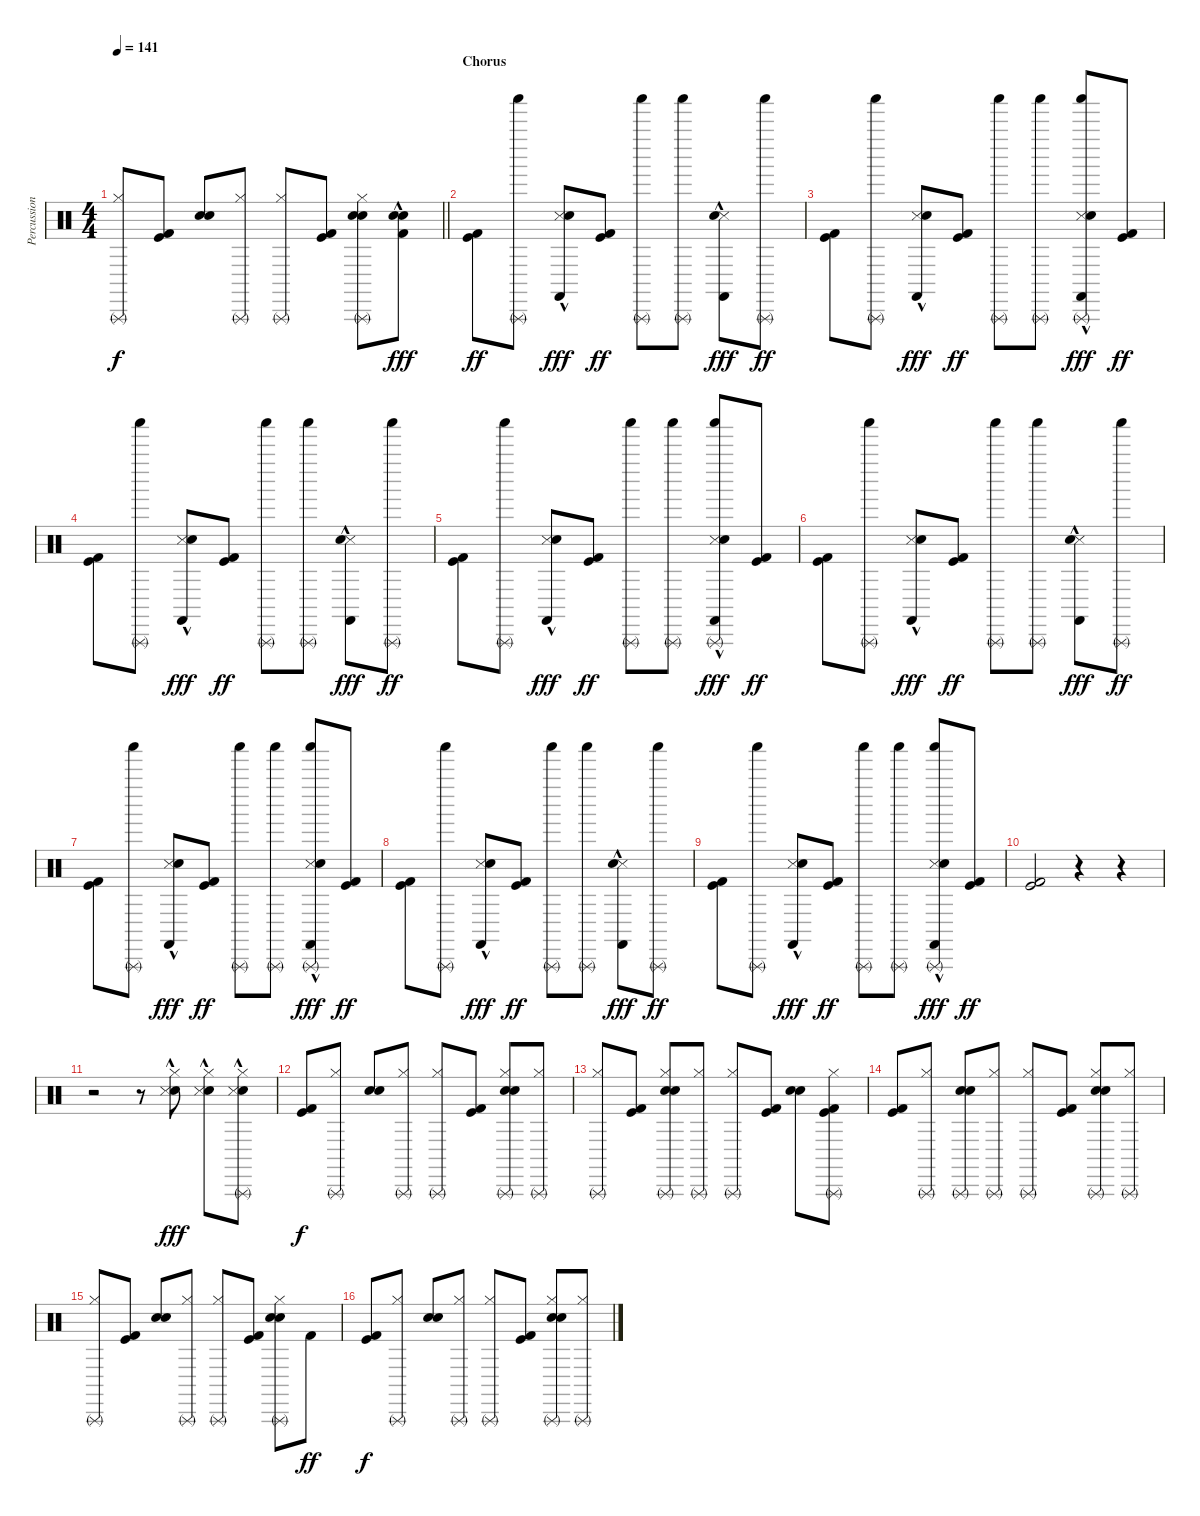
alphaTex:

\track ("Percussion" "Percussion") {instrument percussion}
\staff {score}
\articulation defaults
\ts (4 4)
\tempo 141
\clef neutral
\barLineRight lightlight
\ks c
("Hi-Hat (closed)" "Triangle (rnute)").8{dy f} ("Kick (hit)" "Kick (hit) 2").8 ("Snare (hit) 2" "Electric Snare (hit)").8 ("Hi-Hat (closed)" "Triangle (rnute)").8 ("Hi-Hat (closed)" "Triangle (rnute)").8 ("Kick (hit)" "Kick (hit) 2").8 ("Snare (hit) 2" "Electric Snare (hit)" "Hi-Hat (closed)" "Triangle (rnute)").8 ("Kick (hit) 2" "Snare (hit) 2" "Electric Snare (hit)"{hac}).8{dy fff} |
\section ("" "Chorus")
("Kick (hit)" "Kick (hit) 2").8{dy ff} ("Shaker (hit)" "Triangle (rnute)").8 ("Castanets (hit)"{hac} "Metronome (hit)"{hac} "Electric Snare (hit)").8{dy fff} ("Kick (hit)" "Kick (hit) 2").8{dy ff} ("Shaker (hit)" "Triangle (rnute)").8 ("Shaker (hit)" "Triangle (rnute)").8 ("Castanets (hit)"{hac} "Metronome (hit)"{hac} "Electric Snare (hit)").8{dy fff} ("Shaker (hit)" "Triangle (rnute)").8{dy ff} |
("Kick (hit)" "Kick (hit) 2").8 ("Shaker (hit)" "Triangle (rnute)").8 ("Castanets (hit)"{hac} "Metronome (hit)"{hac} "Electric Snare (hit)").8{dy fff} ("Kick (hit)" "Kick (hit) 2").8{dy ff} ("Shaker (hit)" "Triangle (rnute)").8 ("Shaker (hit)" "Triangle (rnute)").8 ("Castanets (hit)"{hac} "Metronome (hit)"{hac} "Shaker (hit)"{hac} "Triangle (rnute)"{hac} "Electric Snare (hit)").8{dy fff} ("Kick (hit)" "Kick (hit) 2").8{dy ff} |
("Kick (hit)" "Kick (hit) 2").8 ("Shaker (hit)" "Triangle (rnute)").8 ("Castanets (hit)"{hac} "Metronome (hit)"{hac} "Electric Snare (hit)").8{dy fff} ("Kick (hit)" "Kick (hit) 2").8{dy ff} ("Shaker (hit)" "Triangle (rnute)").8 ("Shaker (hit)" "Triangle (rnute)").8 ("Castanets (hit)"{hac} "Metronome (hit)"{hac} "Electric Snare (hit)").8{dy fff} ("Shaker (hit)" "Triangle (rnute)").8{dy ff} |
("Kick (hit)" "Kick (hit) 2").8 ("Shaker (hit)" "Triangle (rnute)").8 ("Castanets (hit)"{hac} "Metronome (hit)"{hac} "Electric Snare (hit)").8{dy fff} ("Kick (hit)" "Kick (hit) 2").8{dy ff} ("Shaker (hit)" "Triangle (rnute)").8 ("Shaker (hit)" "Triangle (rnute)").8 ("Castanets (hit)"{hac} "Metronome (hit)"{hac} "Shaker (hit)"{hac} "Triangle (rnute)"{hac} "Electric Snare (hit)").8{dy fff} ("Kick (hit)" "Kick (hit) 2").8{dy ff} |
("Kick (hit)" "Kick (hit) 2").8 ("Shaker (hit)" "Triangle (rnute)").8 ("Castanets (hit)"{hac} "Metronome (hit)"{hac} "Electric Snare (hit)").8{dy fff} ("Kick (hit)" "Kick (hit) 2").8{dy ff} ("Shaker (hit)" "Triangle (rnute)").8 ("Shaker (hit)" "Triangle (rnute)").8 ("Castanets (hit)"{hac} "Metronome (hit)"{hac} "Electric Snare (hit)").8{dy fff} ("Shaker (hit)" "Triangle (rnute)").8{dy ff} |
("Kick (hit)" "Kick (hit) 2").8 ("Shaker (hit)" "Triangle (rnute)").8 ("Castanets (hit)"{hac} "Metronome (hit)"{hac} "Electric Snare (hit)").8{dy fff} ("Kick (hit)" "Kick (hit) 2").8{dy ff} ("Shaker (hit)" "Triangle (rnute)").8 ("Shaker (hit)" "Triangle (rnute)").8 ("Castanets (hit)"{hac} "Metronome (hit)"{hac} "Shaker (hit)"{hac} "Triangle (rnute)"{hac} "Electric Snare (hit)").8{dy fff} ("Kick (hit)" "Kick (hit) 2").8{dy ff} |
("Kick (hit)" "Kick (hit) 2").8 ("Shaker (hit)" "Triangle (rnute)").8 ("Castanets (hit)"{hac} "Metronome (hit)"{hac} "Electric Snare (hit)").8{dy fff} ("Kick (hit)" "Kick (hit) 2").8{dy ff} ("Shaker (hit)" "Triangle (rnute)").8 ("Shaker (hit)" "Triangle (rnute)").8 ("Castanets (hit)"{hac} "Metronome (hit)"{hac} "Electric Snare (hit)").8{dy fff} ("Shaker (hit)" "Triangle (rnute)").8{dy ff} |
("Kick (hit)" "Kick (hit) 2").8 ("Shaker (hit)" "Triangle (rnute)").8 ("Castanets (hit)"{hac} "Metronome (hit)"{hac} "Electric Snare (hit)").8{dy fff} ("Kick (hit)" "Kick (hit) 2").8{dy ff} ("Shaker (hit)" "Triangle (rnute)").8 ("Shaker (hit)" "Triangle (rnute)").8 ("Castanets (hit)"{hac} "Metronome (hit)"{hac} "Shaker (hit)"{hac} "Triangle (rnute)"{hac} "Electric Snare (hit)").8{dy fff} ("Kick (hit)" "Kick (hit) 2").8{dy ff} |
("Kick (hit)" "Kick (hit) 2").2 r.4 r.4 |
r.2 r.8 ("Electric Snare (hit)"{hac} "Hi-Hat (closed)"{hac} "Metronome (hit)"{hac}).8{dy fff} ("Electric Snare (hit)"{hac} "Hi-Hat (closed)"{hac} "Metronome (hit)"{hac}).8 ("Electric Snare (hit)"{hac} "Hi-Hat (closed)"{hac} "Metronome (hit)"{hac} "Triangle (rnute)"{hac}).8 |
("Kick (hit)" "Kick (hit) 2").8{dy f} ("Hi-Hat (closed)" "Triangle (rnute)").8 ("Snare (hit) 2" "Electric Snare (hit)").8 ("Hi-Hat (closed)" "Triangle (rnute)").8 ("Hi-Hat (closed)" "Triangle (rnute)").8 ("Kick (hit)" "Kick (hit) 2").8 ("Snare (hit) 2" "Electric Snare (hit)" "Hi-Hat (closed)" "Triangle (rnute)").8 ("Hi-Hat (closed)" "Triangle (rnute)").8 |
("Hi-Hat (closed)" "Triangle (rnute)").8 ("Kick (hit)" "Kick (hit) 2").8 ("Snare (hit) 2" "Electric Snare (hit)" "Hi-Hat (closed)" "Triangle (rnute)").8 ("Hi-Hat (closed)" "Triangle (rnute)").8 ("Hi-Hat (closed)" "Triangle (rnute)").8 ("Kick (hit)" "Kick (hit) 2").8 ("Snare (hit) 2" "Electric Snare (hit)").8 ("Kick (hit)" "Kick (hit) 2" "Hi-Hat (closed)" "Triangle (rnute)").8 |
("Kick (hit)" "Kick (hit) 2").8 ("Hi-Hat (closed)" "Triangle (rnute)").8 ("Snare (hit) 2" "Electric Snare (hit)" "Triangle (rnute)").8 ("Hi-Hat (closed)" "Triangle (rnute)").8 ("Hi-Hat (closed)" "Triangle (rnute)").8 ("Kick (hit)" "Kick (hit) 2").8 ("Snare (hit) 2" "Electric Snare (hit)" "Hi-Hat (closed)" "Triangle (rnute)").8 ("Hi-Hat (closed)" "Triangle (rnute)").8 |
("Hi-Hat (closed)" "Triangle (rnute)").8 ("Kick (hit)" "Kick (hit) 2").8 ("Snare (hit) 2" "Electric Snare (hit)").8 ("Hi-Hat (closed)" "Triangle (rnute)").8 ("Hi-Hat (closed)" "Triangle (rnute)").8 ("Kick (hit)" "Kick (hit) 2").8 ("Snare (hit) 2" "Electric Snare (hit)" "Hi-Hat (closed)" "Triangle (rnute)").8 "Kick (hit) 2".8{dy ff} |
("Kick (hit)" "Kick (hit) 2").8{dy f} ("Hi-Hat (closed)" "Triangle (rnute)").8 ("Snare (hit) 2" "Electric Snare (hit)").8 ("Hi-Hat (closed)" "Triangle (rnute)").8 ("Hi-Hat (closed)" "Triangle (rnute)").8 ("Kick (hit)" "Kick (hit) 2").8 ("Snare (hit) 2" "Electric Snare (hit)" "Hi-Hat (closed)" "Triangle (rnute)").8 ("Hi-Hat (closed)" "Triangle (rnute)").8
